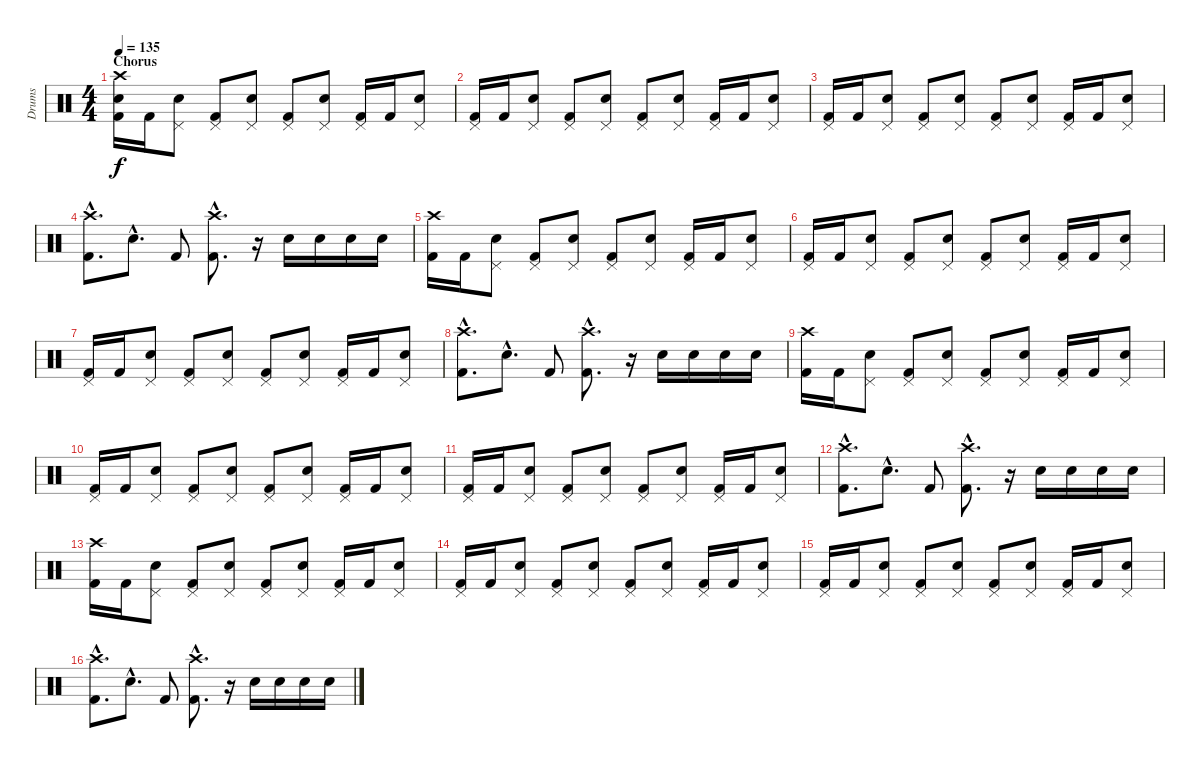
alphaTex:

\track ("Drums" "Drums") {instrument percussion}
\staff {score}
\articulation defaults
\ts (4 4)
\section ("" "Chorus")
\tempo 135
\clef neutral
\ks c
("Crash high (hit)" "Snare (hit) 2" "Kick (hit) 2").16{dy f} "Kick (hit) 2".16 ("Pedal Hi-Hat (hit)" "Snare (hit) 2").8 ("Pedal Hi-Hat (hit)" "Kick (hit) 2").8 ("Pedal Hi-Hat (hit)" "Snare (hit) 2").8 ("Pedal Hi-Hat (hit)" "Kick (hit) 2").8 ("Pedal Hi-Hat (hit)" "Snare (hit) 2").8 ("Pedal Hi-Hat (hit)" "Kick (hit) 2").16 "Kick (hit) 2".16 ("Pedal Hi-Hat (hit)" "Snare (hit) 2").8 |
("Pedal Hi-Hat (hit)" "Kick (hit) 2").16 "Kick (hit) 2".16 ("Pedal Hi-Hat (hit)" "Snare (hit) 2").8 ("Pedal Hi-Hat (hit)" "Kick (hit) 2").8 ("Pedal Hi-Hat (hit)" "Snare (hit) 2").8 ("Pedal Hi-Hat (hit)" "Kick (hit) 2").8 ("Pedal Hi-Hat (hit)" "Snare (hit) 2").8 ("Pedal Hi-Hat (hit)" "Kick (hit) 2").16 "Kick (hit) 2".16 ("Pedal Hi-Hat (hit)" "Snare (hit) 2").8 |
("Pedal Hi-Hat (hit)" "Kick (hit) 2").16 "Kick (hit) 2".16 ("Pedal Hi-Hat (hit)" "Snare (hit) 2").8 ("Pedal Hi-Hat (hit)" "Kick (hit) 2").8 ("Pedal Hi-Hat (hit)" "Snare (hit) 2").8 ("Pedal Hi-Hat (hit)" "Kick (hit) 2").8 ("Pedal Hi-Hat (hit)" "Snare (hit) 2").8 ("Pedal Hi-Hat (hit)" "Kick (hit) 2").16 "Kick (hit) 2".16 ("Pedal Hi-Hat (hit)" "Snare (hit) 2").8 |
("Crash high (hit)"{hac} "Kick (hit) 2"{hac}).8{d} "Snare (hit) 2"{hac}.8{d} "Kick (hit) 2".8 ("Crash high (hit)"{hac} "Kick (hit) 2"{hac}).8{d} r.16 "Snare (hit) 2".16 "Snare (hit) 2".16 "Snare (hit) 2".16 "Snare (hit) 2".16 |
("Crash high (hit)" "Kick (hit) 2").16 "Kick (hit) 2".16 ("Pedal Hi-Hat (hit)" "Snare (hit) 2").8 ("Pedal Hi-Hat (hit)" "Kick (hit) 2").8 ("Pedal Hi-Hat (hit)" "Snare (hit) 2").8 ("Pedal Hi-Hat (hit)" "Kick (hit) 2").8 ("Pedal Hi-Hat (hit)" "Snare (hit) 2").8 ("Pedal Hi-Hat (hit)" "Kick (hit) 2").16 "Kick (hit) 2".16 ("Pedal Hi-Hat (hit)" "Snare (hit) 2").8 |
("Pedal Hi-Hat (hit)" "Kick (hit) 2").16 "Kick (hit) 2".16 ("Pedal Hi-Hat (hit)" "Snare (hit) 2").8 ("Pedal Hi-Hat (hit)" "Kick (hit) 2").8 ("Pedal Hi-Hat (hit)" "Snare (hit) 2").8 ("Pedal Hi-Hat (hit)" "Kick (hit) 2").8 ("Pedal Hi-Hat (hit)" "Snare (hit) 2").8 ("Pedal Hi-Hat (hit)" "Kick (hit) 2").16 "Kick (hit) 2".16 ("Pedal Hi-Hat (hit)" "Snare (hit) 2").8 |
("Pedal Hi-Hat (hit)" "Kick (hit) 2").16 "Kick (hit) 2".16 ("Pedal Hi-Hat (hit)" "Snare (hit) 2").8 ("Pedal Hi-Hat (hit)" "Kick (hit) 2").8 ("Pedal Hi-Hat (hit)" "Snare (hit) 2").8 ("Pedal Hi-Hat (hit)" "Kick (hit) 2").8 ("Pedal Hi-Hat (hit)" "Snare (hit) 2").8 ("Pedal Hi-Hat (hit)" "Kick (hit) 2").16 "Kick (hit) 2".16 ("Pedal Hi-Hat (hit)" "Snare (hit) 2").8 |
("Crash high (hit)"{hac} "Kick (hit) 2"{hac}).8{d} "Snare (hit) 2"{hac}.8{d} "Kick (hit) 2".8 ("Crash high (hit)"{hac} "Kick (hit) 2"{hac}).8{d} r.16 "Snare (hit) 2".16 "Snare (hit) 2".16 "Snare (hit) 2".16 "Snare (hit) 2".16 |
("Crash high (hit)" "Kick (hit) 2").16 "Kick (hit) 2".16 ("Pedal Hi-Hat (hit)" "Snare (hit) 2").8 ("Pedal Hi-Hat (hit)" "Kick (hit) 2").8 ("Pedal Hi-Hat (hit)" "Snare (hit) 2").8 ("Pedal Hi-Hat (hit)" "Kick (hit) 2").8 ("Pedal Hi-Hat (hit)" "Snare (hit) 2").8 ("Pedal Hi-Hat (hit)" "Kick (hit) 2").16 "Kick (hit) 2".16 ("Pedal Hi-Hat (hit)" "Snare (hit) 2").8 |
("Pedal Hi-Hat (hit)" "Kick (hit) 2").16 "Kick (hit) 2".16 ("Pedal Hi-Hat (hit)" "Snare (hit) 2").8 ("Pedal Hi-Hat (hit)" "Kick (hit) 2").8 ("Pedal Hi-Hat (hit)" "Snare (hit) 2").8 ("Pedal Hi-Hat (hit)" "Kick (hit) 2").8 ("Pedal Hi-Hat (hit)" "Snare (hit) 2").8 ("Pedal Hi-Hat (hit)" "Kick (hit) 2").16 "Kick (hit) 2".16 ("Pedal Hi-Hat (hit)" "Snare (hit) 2").8 |
("Pedal Hi-Hat (hit)" "Kick (hit) 2").16 "Kick (hit) 2".16 ("Pedal Hi-Hat (hit)" "Snare (hit) 2").8 ("Pedal Hi-Hat (hit)" "Kick (hit) 2").8 ("Pedal Hi-Hat (hit)" "Snare (hit) 2").8 ("Pedal Hi-Hat (hit)" "Kick (hit) 2").8 ("Pedal Hi-Hat (hit)" "Snare (hit) 2").8 ("Pedal Hi-Hat (hit)" "Kick (hit) 2").16 "Kick (hit) 2".16 ("Pedal Hi-Hat (hit)" "Snare (hit) 2").8 |
("Crash high (hit)"{hac} "Kick (hit) 2"{hac}).8{d} "Snare (hit) 2"{hac}.8{d} "Kick (hit) 2".8 ("Crash high (hit)"{hac} "Kick (hit) 2"{hac}).8{d} r.16 "Snare (hit) 2".16 "Snare (hit) 2".16 "Snare (hit) 2".16 "Snare (hit) 2".16 |
("Crash high (hit)" "Kick (hit) 2").16 "Kick (hit) 2".16 ("Pedal Hi-Hat (hit)" "Snare (hit) 2").8 ("Pedal Hi-Hat (hit)" "Kick (hit) 2").8 ("Pedal Hi-Hat (hit)" "Snare (hit) 2").8 ("Pedal Hi-Hat (hit)" "Kick (hit) 2").8 ("Pedal Hi-Hat (hit)" "Snare (hit) 2").8 ("Pedal Hi-Hat (hit)" "Kick (hit) 2").16 "Kick (hit) 2".16 ("Pedal Hi-Hat (hit)" "Snare (hit) 2").8 |
("Pedal Hi-Hat (hit)" "Kick (hit) 2").16 "Kick (hit) 2".16 ("Pedal Hi-Hat (hit)" "Snare (hit) 2").8 ("Pedal Hi-Hat (hit)" "Kick (hit) 2").8 ("Pedal Hi-Hat (hit)" "Snare (hit) 2").8 ("Pedal Hi-Hat (hit)" "Kick (hit) 2").8 ("Pedal Hi-Hat (hit)" "Snare (hit) 2").8 ("Pedal Hi-Hat (hit)" "Kick (hit) 2").16 "Kick (hit) 2".16 ("Pedal Hi-Hat (hit)" "Snare (hit) 2").8 |
("Pedal Hi-Hat (hit)" "Kick (hit) 2").16 "Kick (hit) 2".16 ("Pedal Hi-Hat (hit)" "Snare (hit) 2").8 ("Pedal Hi-Hat (hit)" "Kick (hit) 2").8 ("Pedal Hi-Hat (hit)" "Snare (hit) 2").8 ("Pedal Hi-Hat (hit)" "Kick (hit) 2").8 ("Pedal Hi-Hat (hit)" "Snare (hit) 2").8 ("Pedal Hi-Hat (hit)" "Kick (hit) 2").16 "Kick (hit) 2".16 ("Pedal Hi-Hat (hit)" "Snare (hit) 2").8 |
("Crash high (hit)"{hac} "Kick (hit) 2"{hac}).8{d} "Snare (hit) 2"{hac}.8{d} "Kick (hit) 2".8 ("Crash high (hit)"{hac} "Kick (hit) 2"{hac}).8{d} r.16 "Snare (hit) 2".16 "Snare (hit) 2".16 "Snare (hit) 2".16 "Snare (hit) 2".16
